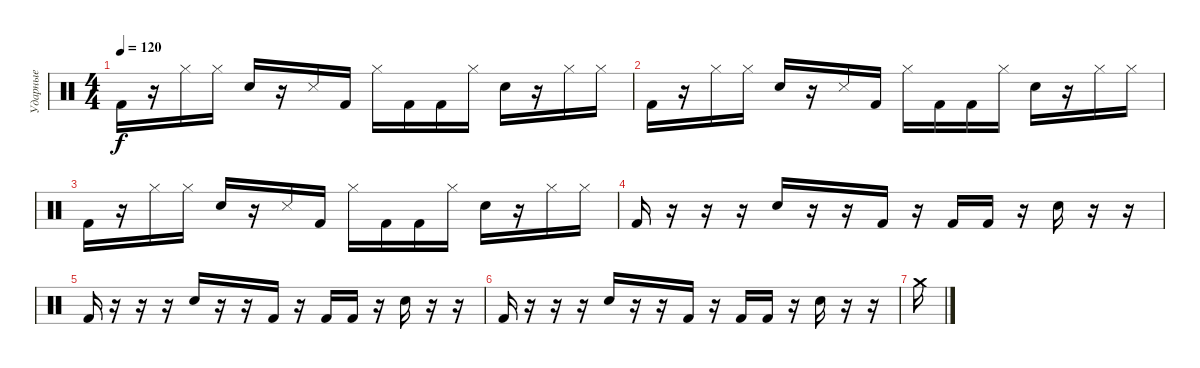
\track ("Ударные" "Ударные") {instrument percussion}
\staff {score}
\articulation defaults
\ts (4 4)
\tempo 120
\clef neutral
\ks c "Kick (hit) 2".16{dy f}
r.16 "Hi-Hat (closed)".16 "Hi-Hat (closed)".16 "Electric Snare (hit)".16 r.16 "Snare (side stick) 3".16 "Kick (hit) 2".16 "Hi-Hat (closed)".16 "Kick (hit) 2".16 "Kick (hit) 2".16 "Hi-Hat (closed)".16 "Electric Snare (hit)".16 r.16 "Hi-Hat (closed)".16 "Hi-Hat (closed)".16 |
"Kick (hit) 2".16 r.16 "Hi-Hat (closed)".16 "Hi-Hat (closed)".16 "Electric Snare (hit)".16 r.16 "Snare (side stick) 3".16 "Kick (hit) 2".16 "Hi-Hat (closed)".16 "Kick (hit) 2".16 "Kick (hit) 2".16 "Hi-Hat (closed)".16 "Electric Snare (hit)".16 r.16 "Hi-Hat (closed)".16 "Hi-Hat (closed)".16 |
"Kick (hit) 2".16 r.16 "Hi-Hat (closed)".16 "Hi-Hat (closed)".16 "Electric Snare (hit)".16 r.16 "Snare (side stick) 3".16 "Kick (hit) 2".16 "Hi-Hat (closed)".16 "Kick (hit) 2".16 "Kick (hit) 2".16 "Hi-Hat (closed)".16 "Electric Snare (hit)".16 r.16 "Hi-Hat (closed)".16 "Hi-Hat (closed)".16 |
"Kick (hit) 2".16 r.16 r.16 r.16 "Electric Snare (hit)".16 r.16 r.16 "Kick (hit) 2".16 r.16 "Kick (hit) 2".16 "Kick (hit) 2".16 r.16 "Electric Snare (hit)".16 r.16 r.16 |
"Kick (hit) 2".16 r.16 r.16 r.16 "Electric Snare (hit)".16 r.16 r.16 "Kick (hit) 2".16 r.16 "Kick (hit) 2".16 "Kick (hit) 2".16 r.16 "Electric Snare (hit)".16 r.16 r.16 |
"Kick (hit) 2".16 r.16 r.16 r.16 "Electric Snare (hit)".16 r.16 r.16 "Kick (hit) 2".16 r.16 "Kick (hit) 2".16 "Kick (hit) 2".16 r.16 "Electric Snare (hit)".16 r.16 r.16 |
"Crash medium (hit)".16
